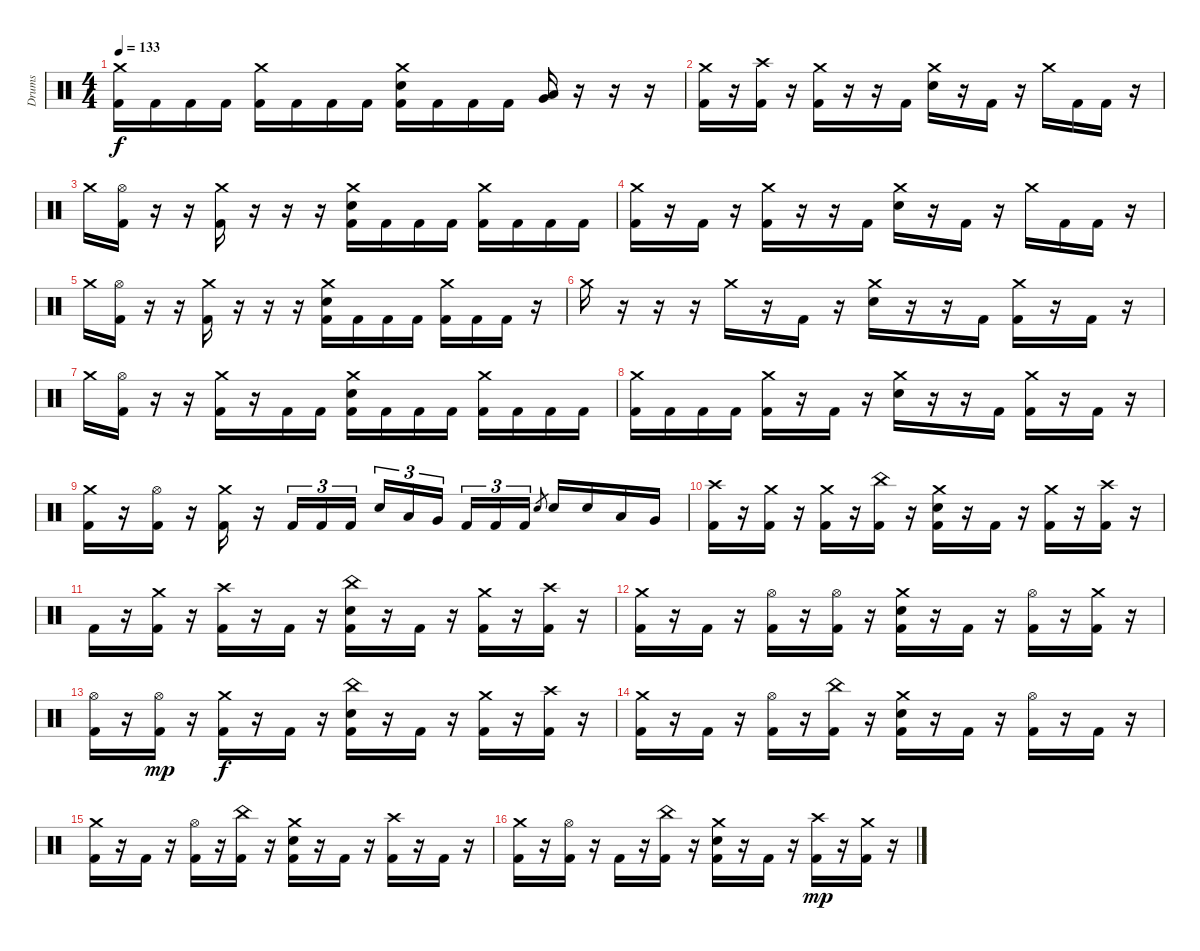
\track ("Drums" "Drums") {instrument percussion}
\staff {score}
\articulation defaults
\ts (4 4)
\tempo 133
\clef neutral
\ks c
("Crash medium (hit)" "Kick (hit) 2").16{dy f} "Kick (hit) 2".16 "Kick (hit) 2".16 "Kick (hit) 2".16 ("Crash medium (hit)" "Kick (hit) 2").16 "Kick (hit) 2".16 "Kick (hit) 2".16 "Kick (hit) 2".16 ("Crash medium (hit)" "Snare (hit) 2" "Kick (hit) 2").16 "Kick (hit) 2".16 "Kick (hit) 2".16 "Kick (hit) 2".16 ("Very Low Tom (hit)" "Low Floor Tom (hit)").16 r.16 r.16 r.16 |
("Crash medium (hit)" "Kick (hit) 2").16 r.16 ("Crash high (hit)" "Kick (hit) 2").16 r.16 ("Crash medium (hit)" "Kick (hit) 2").16 r.16 r.16 "Kick (hit) 2".16 ("Crash medium (hit)" "Snare (hit) 2").16 r.16 "Kick (hit) 2".16 r.16 "Crash medium (hit)".16 "Kick (hit) 2".16 "Kick (hit) 2".16 r.16 |
"Crash medium (hit)".16 ("Hi-Hat (open)" "Kick (hit) 2").16 r.16 r.16 ("Crash medium (hit)" "Kick (hit) 2").16 r.16 r.16 r.16 ("Crash medium (hit)" "Snare (hit) 2" "Kick (hit) 2").16 "Kick (hit) 2".16 "Kick (hit) 2".16 "Kick (hit) 2".16 ("Crash medium (hit)" "Kick (hit) 2").16 "Kick (hit) 2".16 "Kick (hit) 2".16 "Kick (hit) 2".16 |
("Crash medium (hit)" "Kick (hit) 2").16 r.16 "Kick (hit) 2".16 r.16 ("Crash medium (hit)" "Kick (hit) 2").16 r.16 r.16 "Kick (hit) 2".16 ("Crash medium (hit)" "Snare (hit) 2").16 r.16 "Kick (hit) 2".16 r.16 "Crash medium (hit)".16 "Kick (hit) 2".16 "Kick (hit) 2".16 r.16 |
"Crash medium (hit)".16 ("Hi-Hat (open)" "Kick (hit) 2").16 r.16 r.16 ("Crash medium (hit)" "Kick (hit) 2").16 r.16 r.16 r.16 ("Crash medium (hit)" "Snare (hit) 2" "Kick (hit) 2").16 "Kick (hit) 2".16 "Kick (hit) 2".16 "Kick (hit) 2".16 ("Crash medium (hit)" "Kick (hit) 2").16 "Kick (hit) 2".16 "Kick (hit) 2".16 r.16 |
"Crash medium (hit)".16 r.16 r.16 r.16 "Crash medium (hit)".16 r.16 "Kick (hit) 2".16 r.16 ("Crash medium (hit)" "Snare (hit) 2").16 r.16 r.16 "Kick (hit) 2".16 ("Crash medium (hit)" "Kick (hit) 2").16 r.16 "Kick (hit) 2".16 r.16 |
"Crash medium (hit)".16 ("Hi-Hat (open)" "Kick (hit) 2").16 r.16 r.16 ("Crash medium (hit)" "Kick (hit) 2").16 r.16 "Kick (hit) 2".16 "Kick (hit) 2".16 ("Crash medium (hit)" "Snare (hit) 2" "Kick (hit) 2").16 "Kick (hit) 2".16 "Kick (hit) 2".16 "Kick (hit) 2".16 ("Crash medium (hit)" "Kick (hit) 2").16 "Kick (hit) 2".16 "Kick (hit) 2".16 "Kick (hit) 2".16 |
("Crash medium (hit)" "Kick (hit) 2").16 "Kick (hit) 2".16 "Kick (hit) 2".16 "Kick (hit) 2".16 ("Crash medium (hit)" "Kick (hit) 2").16 r.16 "Kick (hit) 2".16 r.16 ("Crash medium (hit)" "Snare (hit) 2").16 r.16 r.16 "Kick (hit) 2".16 ("Crash medium (hit)" "Kick (hit) 2").16 r.16 "Kick (hit) 2".16 r.16 |
("Crash medium (hit)" "Kick (hit) 2").16 r.16 ("Hi-Hat (open)" "Kick (hit) 2").16 r.16 ("Crash medium (hit)" "Kick (hit) 2").16 r.16 "Kick (hit) 2".16{tu (3 2)} "Kick (hit) 2".16{tu (3 2)} "Kick (hit) 2".16{tu (3 2)} "Snare (hit) 2".16{tu (3 2)} "Low Tom (hit)".16{tu (3 2)} "Very Low Tom (hit)".16{tu (3 2) beam splitsecondary} "Kick (hit) 2".16{tu (3 2)} "Kick (hit) 2".16{tu (3 2)} "Kick (hit) 2".16{tu (3 2)} "Snare (hit) 2".8{gr} "Snare (hit) 2".16 "Snare (hit) 2".16 "Low Tom (hit)".16 "Very Low Tom (hit)".16 |
("Crash high (hit)" "Kick (hit) 2").16 r.16 ("Crash medium (hit)" "Kick (hit) 2").16 r.16 ("Crash medium (hit)" "Kick (hit) 2").16 r.16 ("China (hit)" "Kick (hit) 2").16 r.16 ("Crash medium (hit)" "Snare (hit) 2" "Kick (hit) 2").16 r.16 "Kick (hit) 2".16 r.16 ("Crash medium (hit)" "Kick (hit) 2").16 r.16 ("Crash high (hit)" "Kick (hit) 2").16 r.16 |
"Kick (hit) 2".16 r.16 ("Crash medium (hit)" "Kick (hit) 2").16 r.16 ("Crash high (hit)" "Kick (hit) 2").16 r.16 "Kick (hit) 2".16 r.16 ("China (hit)" "Snare (hit) 2" "Kick (hit) 2").16 r.16 "Kick (hit) 2".16 r.16 ("Crash medium (hit)" "Kick (hit) 2").16 r.16 ("Crash high (hit)" "Kick (hit) 2").16 r.16 |
("Crash medium (hit)" "Kick (hit) 2").16 r.16 "Kick (hit) 2".16 r.16 ("Hi-Hat (open)" "Kick (hit) 2").16 r.16 ("Hi-Hat (open)" "Kick (hit) 2").16 r.16 ("Crash medium (hit)" "Snare (hit) 2" "Kick (hit) 2").16 r.16 "Kick (hit) 2".16 r.16 ("Hi-Hat (open)" "Kick (hit) 2").16 r.16 ("Crash medium (hit)" "Kick (hit) 2").16 r.16 |
("Hi-Hat (open)" "Kick (hit) 2").16 r.16 ("Hi-Hat (open)" "Kick (hit) 2").16{dy mp} r.16 ("Crash medium (hit)" "Kick (hit) 2").16{dy f} r.16 "Kick (hit) 2".16 r.16 ("China (hit)" "Snare (hit) 2" "Kick (hit) 2").16 r.16 "Kick (hit) 2".16 r.16 ("Crash medium (hit)" "Kick (hit) 2").16 r.16 ("Crash high (hit)" "Kick (hit) 2").16 r.16 |
("Crash medium (hit)" "Kick (hit) 2").16 r.16 "Kick (hit) 2".16 r.16 ("Hi-Hat (open)" "Kick (hit) 2").16 r.16 ("China (hit)" "Kick (hit) 2").16 r.16 ("Crash medium (hit)" "Snare (hit) 2" "Kick (hit) 2").16 r.16 "Kick (hit) 2".16 r.16 ("Hi-Hat (open)" "Kick (hit) 2").16 r.16 "Kick (hit) 2".16 r.16 |
("Crash medium (hit)" "Kick (hit) 2").16 r.16 "Kick (hit) 2".16 r.16 ("Hi-Hat (open)" "Kick (hit) 2").16 r.16 ("China (hit)" "Kick (hit) 2").16 r.16 ("Crash medium (hit)" "Snare (hit) 2" "Kick (hit) 2").16 r.16 "Kick (hit) 2".16 r.16 ("Crash high (hit)" "Kick (hit) 2").16 r.16 "Kick (hit) 2".16 r.16 |
("Crash medium (hit)" "Kick (hit) 2").16 r.16 ("Hi-Hat (open)" "Kick (hit) 2").16 r.16 "Kick (hit) 2".16 r.16 ("China (hit)" "Kick (hit) 2").16 r.16 ("Crash medium (hit)" "Snare (hit) 2" "Kick (hit) 2").16 r.16 "Kick (hit) 2".16 r.16 ("Crash high (hit)" "Kick (hit) 2").16{dy mp} r.16 ("Crash medium (hit)" "Kick (hit) 2").16 r.16
